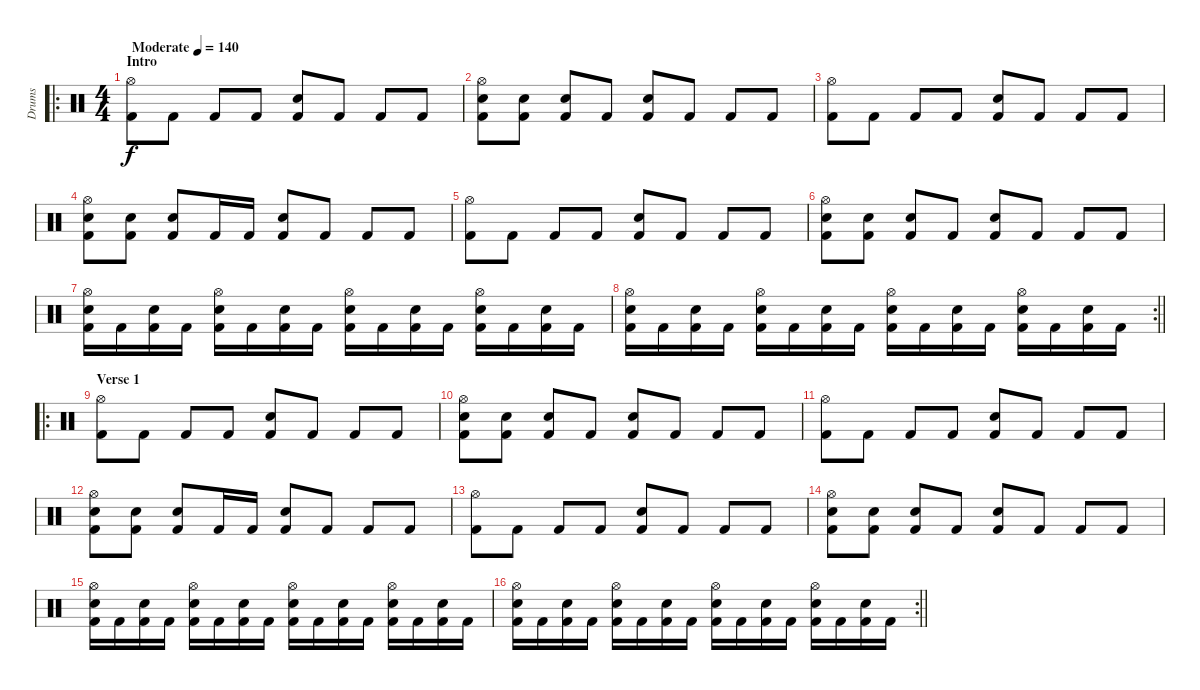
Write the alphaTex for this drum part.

\track ("Drums" "Drums") {instrument percussion}
\staff {score}
\articulation defaults
\ro
\ts (4 4)
\section ("" "Intro")
\tempo (140 "Moderate")
\clef neutral
\ks c
("Hi-Hat (open)" "Kick (hit) 2").8{dy f} "Kick (hit) 2".8 "Kick (hit) 2".8 "Kick (hit) 2".8 ("Snare (hit) 2" "Kick (hit) 2").8 "Kick (hit) 2".8 "Kick (hit) 2".8 "Kick (hit) 2".8 |
("Hi-Hat (open)" "Snare (hit) 2" "Kick (hit) 2").8 ("Snare (hit) 2" "Kick (hit) 2").8 ("Snare (hit) 2" "Kick (hit) 2").8 "Kick (hit) 2".8 ("Snare (hit) 2" "Kick (hit) 2").8 "Kick (hit) 2".8 "Kick (hit) 2".8 "Kick (hit) 2".8 |
("Hi-Hat (open)" "Kick (hit) 2").8 "Kick (hit) 2".8 "Kick (hit) 2".8 "Kick (hit) 2".8 ("Snare (hit) 2" "Kick (hit) 2").8 "Kick (hit) 2".8 "Kick (hit) 2".8 "Kick (hit) 2".8 |
("Hi-Hat (open)" "Snare (hit) 2" "Kick (hit) 2").8 ("Snare (hit) 2" "Kick (hit) 2").8 ("Snare (hit) 2" "Kick (hit) 2").8 "Kick (hit) 2".16 "Kick (hit) 2".16 ("Snare (hit) 2" "Kick (hit) 2").8 "Kick (hit) 2".8 "Kick (hit) 2".8 "Kick (hit) 2".8 |
("Hi-Hat (open)" "Kick (hit) 2").8 "Kick (hit) 2".8 "Kick (hit) 2".8 "Kick (hit) 2".8 ("Snare (hit) 2" "Kick (hit) 2").8 "Kick (hit) 2".8 "Kick (hit) 2".8 "Kick (hit) 2".8 |
("Hi-Hat (open)" "Snare (hit) 2" "Kick (hit) 2").8 ("Snare (hit) 2" "Kick (hit) 2").8 ("Snare (hit) 2" "Kick (hit) 2").8 "Kick (hit) 2".8 ("Snare (hit) 2" "Kick (hit) 2").8 "Kick (hit) 2".8 "Kick (hit) 2".8 "Kick (hit) 2".8 |
("Hi-Hat (open)" "Snare (hit) 2" "Kick (hit) 2").16 "Kick (hit) 2".16 ("Snare (hit) 2" "Kick (hit) 2").16 "Kick (hit) 2".16 ("Hi-Hat (open)" "Snare (hit) 2" "Kick (hit) 2").16 "Kick (hit) 2".16 ("Snare (hit) 2" "Kick (hit) 2").16 "Kick (hit) 2".16 ("Hi-Hat (open)" "Snare (hit) 2" "Kick (hit) 2").16 "Kick (hit) 2".16 ("Snare (hit) 2" "Kick (hit) 2").16 "Kick (hit) 2".16 ("Hi-Hat (open)" "Snare (hit) 2" "Kick (hit) 2").16 "Kick (hit) 2".16 ("Snare (hit) 2" "Kick (hit) 2").16 "Kick (hit) 2".16 |
\rc 2
\barLineRight lightlight
("Hi-Hat (open)" "Snare (hit) 2" "Kick (hit) 2").16 "Kick (hit) 2".16 ("Snare (hit) 2" "Kick (hit) 2").16 "Kick (hit) 2".16 ("Hi-Hat (open)" "Snare (hit) 2" "Kick (hit) 2").16 "Kick (hit) 2".16 ("Snare (hit) 2" "Kick (hit) 2").16 "Kick (hit) 2".16 ("Hi-Hat (open)" "Snare (hit) 2" "Kick (hit) 2").16 "Kick (hit) 2".16 ("Snare (hit) 2" "Kick (hit) 2").16 "Kick (hit) 2".16 ("Hi-Hat (open)" "Snare (hit) 2" "Kick (hit) 2").16 "Kick (hit) 2".16 ("Snare (hit) 2" "Kick (hit) 2").16 "Kick (hit) 2".16 |
\ro
\section ("" "Verse 1")
("Hi-Hat (open)" "Kick (hit) 2").8 "Kick (hit) 2".8 "Kick (hit) 2".8 "Kick (hit) 2".8 ("Snare (hit) 2" "Kick (hit) 2").8 "Kick (hit) 2".8 "Kick (hit) 2".8 "Kick (hit) 2".8 |
("Hi-Hat (open)" "Snare (hit) 2" "Kick (hit) 2").8 ("Snare (hit) 2" "Kick (hit) 2").8 ("Snare (hit) 2" "Kick (hit) 2").8 "Kick (hit) 2".8 ("Snare (hit) 2" "Kick (hit) 2").8 "Kick (hit) 2".8 "Kick (hit) 2".8 "Kick (hit) 2".8 |
("Hi-Hat (open)" "Kick (hit) 2").8 "Kick (hit) 2".8 "Kick (hit) 2".8 "Kick (hit) 2".8 ("Snare (hit) 2" "Kick (hit) 2").8 "Kick (hit) 2".8 "Kick (hit) 2".8 "Kick (hit) 2".8 |
("Hi-Hat (open)" "Snare (hit) 2" "Kick (hit) 2").8 ("Snare (hit) 2" "Kick (hit) 2").8 ("Snare (hit) 2" "Kick (hit) 2").8 "Kick (hit) 2".16 "Kick (hit) 2".16 ("Snare (hit) 2" "Kick (hit) 2").8 "Kick (hit) 2".8 "Kick (hit) 2".8 "Kick (hit) 2".8 |
("Hi-Hat (open)" "Kick (hit) 2").8 "Kick (hit) 2".8 "Kick (hit) 2".8 "Kick (hit) 2".8 ("Snare (hit) 2" "Kick (hit) 2").8 "Kick (hit) 2".8 "Kick (hit) 2".8 "Kick (hit) 2".8 |
("Hi-Hat (open)" "Snare (hit) 2" "Kick (hit) 2").8 ("Snare (hit) 2" "Kick (hit) 2").8 ("Snare (hit) 2" "Kick (hit) 2").8 "Kick (hit) 2".8 ("Snare (hit) 2" "Kick (hit) 2").8 "Kick (hit) 2".8 "Kick (hit) 2".8 "Kick (hit) 2".8 |
("Hi-Hat (open)" "Snare (hit) 2" "Kick (hit) 2").16 "Kick (hit) 2".16 ("Snare (hit) 2" "Kick (hit) 2").16 "Kick (hit) 2".16 ("Hi-Hat (open)" "Snare (hit) 2" "Kick (hit) 2").16 "Kick (hit) 2".16 ("Snare (hit) 2" "Kick (hit) 2").16 "Kick (hit) 2".16 ("Hi-Hat (open)" "Snare (hit) 2" "Kick (hit) 2").16 "Kick (hit) 2".16 ("Snare (hit) 2" "Kick (hit) 2").16 "Kick (hit) 2".16 ("Hi-Hat (open)" "Snare (hit) 2" "Kick (hit) 2").16 "Kick (hit) 2".16 ("Snare (hit) 2" "Kick (hit) 2").16 "Kick (hit) 2".16 |
\rc 2
\barLineRight lightlight
("Hi-Hat (open)" "Snare (hit) 2" "Kick (hit) 2").16 "Kick (hit) 2".16 ("Snare (hit) 2" "Kick (hit) 2").16 "Kick (hit) 2".16 ("Hi-Hat (open)" "Snare (hit) 2" "Kick (hit) 2").16 "Kick (hit) 2".16 ("Snare (hit) 2" "Kick (hit) 2").16 "Kick (hit) 2".16 ("Hi-Hat (open)" "Snare (hit) 2" "Kick (hit) 2").16 "Kick (hit) 2".16 ("Snare (hit) 2" "Kick (hit) 2").16 "Kick (hit) 2".16 ("Hi-Hat (open)" "Snare (hit) 2" "Kick (hit) 2").16 "Kick (hit) 2".16 ("Snare (hit) 2" "Kick (hit) 2").16 "Kick (hit) 2".16
